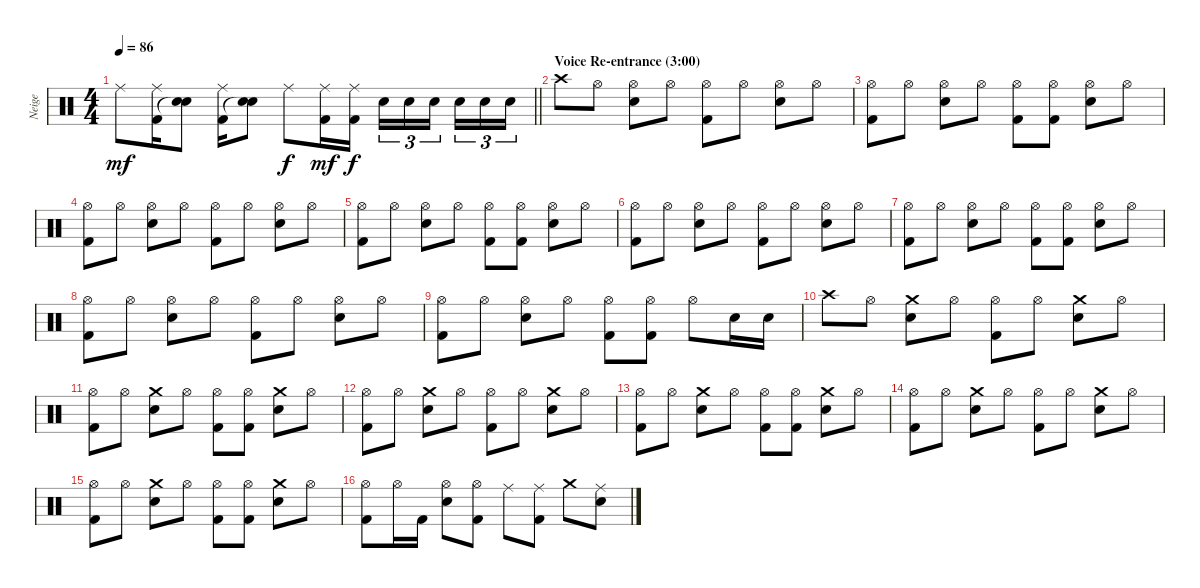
\track ("Neige" "Neige") {instrument percussion}
\staff {score}
\articulation defaults
\ts (4 4)
\tempo 86
\clef neutral
\barLineRight lightlight
\ks c "Ride (middle)".8{dy mf}
("Ride (middle)" "Kick (hit) 2").16 ("Snare (hit) 2" "Snare (hit)"{t}).8 ("Ride (middle)" "Kick (hit) 2").16 ("Snare (hit) 2" "Snare (hit)"{t}).8 "Ride (middle)".8{dy f} ("Ride (middle)" "Kick (hit) 2").16{dy mf} ("Ride (middle)" "Kick (hit) 2").16{dy f} "Snare (hit) 2".16{tu (3 2)} "Snare (hit) 2".16{tu (3 2)} "Snare (hit) 2".16{tu (3 2) beam splitsecondary} "Snare (hit) 2".16{tu (3 2)} "Snare (hit) 2".16{tu (3 2)} "Snare (hit) 2".16{tu (3 2)} |
\section ("" "Voice Re-entrance (3:00)")
"Crash high (hit)".8 "Hi-Hat (open)".8 ("Snare (hit) 2" "Hi-Hat (open)").8 "Hi-Hat (open)".8 ("Hi-Hat (open)" "Kick (hit) 2").8 "Hi-Hat (open)".8 ("Snare (hit) 2" "Hi-Hat (open)").8 "Hi-Hat (open)".8 |
("Hi-Hat (open)" "Kick (hit) 2").8 "Hi-Hat (open)".8 ("Snare (hit) 2" "Hi-Hat (open)").8 "Hi-Hat (open)".8 ("Hi-Hat (open)" "Kick (hit) 2").8 ("Hi-Hat (open)" "Kick (hit) 2").8 ("Snare (hit) 2" "Hi-Hat (open)").8 "Hi-Hat (open)".8 |
("Hi-Hat (open)" "Kick (hit) 2").8 "Hi-Hat (open)".8 ("Snare (hit) 2" "Hi-Hat (open)").8 "Hi-Hat (open)".8 ("Hi-Hat (open)" "Kick (hit) 2").8 "Hi-Hat (open)".8 ("Snare (hit) 2" "Hi-Hat (open)").8 "Hi-Hat (open)".8 |
("Hi-Hat (open)" "Kick (hit) 2").8 "Hi-Hat (open)".8 ("Snare (hit) 2" "Hi-Hat (open)").8 "Hi-Hat (open)".8 ("Hi-Hat (open)" "Kick (hit) 2").8 ("Hi-Hat (open)" "Kick (hit) 2").8 ("Snare (hit) 2" "Hi-Hat (open)").8 "Hi-Hat (open)".8 |
("Hi-Hat (open)" "Kick (hit) 2").8 "Hi-Hat (open)".8 ("Snare (hit) 2" "Hi-Hat (open)").8 "Hi-Hat (open)".8 ("Hi-Hat (open)" "Kick (hit) 2").8 "Hi-Hat (open)".8 ("Snare (hit) 2" "Hi-Hat (open)").8 "Hi-Hat (open)".8 |
("Hi-Hat (open)" "Kick (hit) 2").8 "Hi-Hat (open)".8 ("Snare (hit) 2" "Hi-Hat (open)").8 "Hi-Hat (open)".8 ("Hi-Hat (open)" "Kick (hit) 2").8 ("Hi-Hat (open)" "Kick (hit) 2").8 ("Snare (hit) 2" "Hi-Hat (open)").8 "Hi-Hat (open)".8 |
("Hi-Hat (open)" "Kick (hit) 2").8 "Hi-Hat (open)".8 ("Snare (hit) 2" "Hi-Hat (open)").8 "Hi-Hat (open)".8 ("Hi-Hat (open)" "Kick (hit) 2").8 "Hi-Hat (open)".8 ("Snare (hit) 2" "Hi-Hat (open)").8 "Hi-Hat (open)".8 |
("Hi-Hat (open)" "Kick (hit) 2").8 "Hi-Hat (open)".8 ("Snare (hit) 2" "Hi-Hat (open)").8 "Hi-Hat (open)".8 ("Hi-Hat (open)" "Kick (hit) 2").8 ("Hi-Hat (open)" "Kick (hit) 2").8 "Hi-Hat (open)".8 "Snare (hit) 2".16 "Snare (hit) 2".16 |
"Crash high (hit)".8 "Hi-Hat (open)".8 ("Snare (hit) 2" "Crash medium (hit)").8 "Hi-Hat (open)".8 ("Hi-Hat (open)" "Kick (hit) 2").8 "Hi-Hat (open)".8 ("Snare (hit) 2" "Crash medium (hit)").8 "Hi-Hat (open)".8 |
("Hi-Hat (open)" "Kick (hit) 2").8 "Hi-Hat (open)".8 ("Snare (hit) 2" "Crash medium (hit)").8 "Hi-Hat (open)".8 ("Hi-Hat (open)" "Kick (hit) 2").8 ("Hi-Hat (open)" "Kick (hit) 2").8 ("Snare (hit) 2" "Crash medium (hit)").8 "Hi-Hat (open)".8 |
("Hi-Hat (open)" "Kick (hit) 2").8 "Hi-Hat (open)".8 ("Snare (hit) 2" "Crash medium (hit)").8 "Hi-Hat (open)".8 ("Hi-Hat (open)" "Kick (hit) 2").8 "Hi-Hat (open)".8 ("Snare (hit) 2" "Crash medium (hit)").8 "Hi-Hat (open)".8 |
("Hi-Hat (open)" "Kick (hit) 2").8 "Hi-Hat (open)".8 ("Snare (hit) 2" "Crash medium (hit)").8 "Hi-Hat (open)".8 ("Hi-Hat (open)" "Kick (hit) 2").8 ("Hi-Hat (open)" "Kick (hit) 2").8 ("Snare (hit) 2" "Crash medium (hit)").8 "Hi-Hat (open)".8 |
("Hi-Hat (open)" "Kick (hit) 2").8 "Hi-Hat (open)".8 ("Snare (hit) 2" "Crash medium (hit)").8 "Hi-Hat (open)".8 ("Hi-Hat (open)" "Kick (hit) 2").8 "Hi-Hat (open)".8 ("Snare (hit) 2" "Crash medium (hit)").8 "Hi-Hat (open)".8 |
("Hi-Hat (open)" "Kick (hit) 2").8 "Hi-Hat (open)".8 ("Snare (hit) 2" "Crash medium (hit)").8 "Hi-Hat (open)".8 ("Hi-Hat (open)" "Kick (hit) 2").8 ("Hi-Hat (open)" "Kick (hit) 2").8 ("Snare (hit) 2" "Crash medium (hit)").8 "Hi-Hat (open)".8 |
("Hi-Hat (open)" "Kick (hit) 2").8 "Hi-Hat (open)".16 "Kick (hit) 2".16 ("Snare (hit) 2" "Hi-Hat (open)").8 ("Hi-Hat (open)" "Kick (hit) 2").8 "Ride (middle)".8 ("Ride (middle)" "Kick (hit) 2").8 "Crash medium (hit)".8 ("Snare (hit) 2" "Ride (middle)").8
